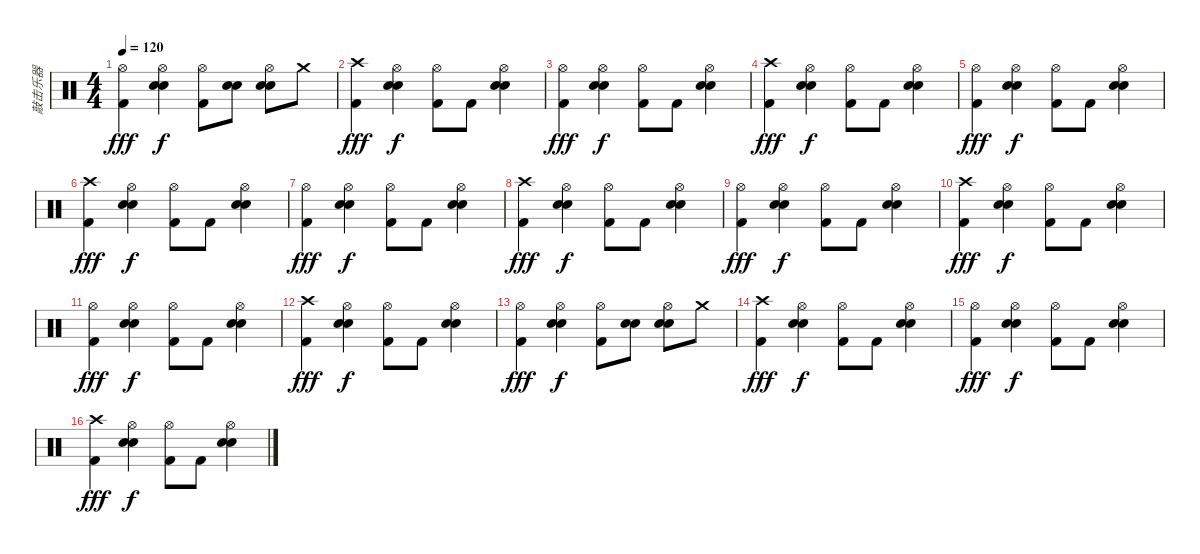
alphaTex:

\track ("敲击乐器" "敲击乐器") {instrument percussion}
\staff {score}
\articulation defaults
\ts (4 4)
\tempo 120
\clef neutral
\ks c
("Hi-Hat (open)" "Kick (hit) 2").4{dy fff} ("Hi-Hat (open)" "Electric Snare (hit)" "Metronome (bell)").4{dy f} ("Hi-Hat (open)" "Kick (hit) 2").8 ("Electric Snare (hit)" "Metronome (bell)").8 ("Hi-Hat (open)" "Electric Snare (hit)" "Metronome (bell)").8 "Crash medium (hit)".8 |
("Crash high (hit)" "Kick (hit) 2").4{dy fff} ("Hi-Hat (open)" "Electric Snare (hit)" "Metronome (bell)").4{dy f} ("Hi-Hat (open)" "Kick (hit) 2").8 "Kick (hit) 2".8 ("Hi-Hat (open)" "Electric Snare (hit)" "Metronome (bell)").4 |
("Hi-Hat (open)" "Kick (hit) 2").4{dy fff} ("Hi-Hat (open)" "Electric Snare (hit)" "Metronome (bell)").4{dy f} ("Hi-Hat (open)" "Kick (hit) 2").8 "Kick (hit) 2".8 ("Hi-Hat (open)" "Electric Snare (hit)" "Metronome (bell)").4 |
("Crash high (hit)" "Kick (hit) 2").4{dy fff} ("Hi-Hat (open)" "Electric Snare (hit)" "Metronome (bell)").4{dy f} ("Hi-Hat (open)" "Kick (hit) 2").8 "Kick (hit) 2".8 ("Hi-Hat (open)" "Electric Snare (hit)" "Metronome (bell)").4 |
("Hi-Hat (open)" "Kick (hit) 2").4{dy fff} ("Hi-Hat (open)" "Electric Snare (hit)" "Metronome (bell)").4{dy f} ("Hi-Hat (open)" "Kick (hit) 2").8 "Kick (hit) 2".8 ("Hi-Hat (open)" "Electric Snare (hit)" "Metronome (bell)").4 |
("Crash high (hit)" "Kick (hit) 2").4{dy fff} ("Hi-Hat (open)" "Electric Snare (hit)" "Metronome (bell)").4{dy f} ("Hi-Hat (open)" "Kick (hit) 2").8 "Kick (hit) 2".8 ("Hi-Hat (open)" "Electric Snare (hit)" "Metronome (bell)").4 |
("Hi-Hat (open)" "Kick (hit) 2").4{dy fff} ("Hi-Hat (open)" "Electric Snare (hit)" "Metronome (bell)").4{dy f} ("Hi-Hat (open)" "Kick (hit) 2").8 "Kick (hit) 2".8 ("Hi-Hat (open)" "Electric Snare (hit)" "Metronome (bell)").4 |
("Crash high (hit)" "Kick (hit) 2").4{dy fff} ("Hi-Hat (open)" "Electric Snare (hit)" "Metronome (bell)").4{dy f} ("Hi-Hat (open)" "Kick (hit) 2").8 "Kick (hit) 2".8 ("Hi-Hat (open)" "Electric Snare (hit)" "Metronome (bell)").4 |
("Hi-Hat (open)" "Kick (hit) 2").4{dy fff} ("Hi-Hat (open)" "Electric Snare (hit)" "Metronome (bell)").4{dy f} ("Hi-Hat (open)" "Kick (hit) 2").8 "Kick (hit) 2".8 ("Hi-Hat (open)" "Electric Snare (hit)" "Metronome (bell)").4 |
("Crash high (hit)" "Kick (hit) 2").4{dy fff} ("Hi-Hat (open)" "Electric Snare (hit)" "Metronome (bell)").4{dy f} ("Hi-Hat (open)" "Kick (hit) 2").8 "Kick (hit) 2".8 ("Hi-Hat (open)" "Electric Snare (hit)" "Metronome (bell)").4 |
("Hi-Hat (open)" "Kick (hit) 2").4{dy fff} ("Hi-Hat (open)" "Electric Snare (hit)" "Metronome (bell)").4{dy f} ("Hi-Hat (open)" "Kick (hit) 2").8 "Kick (hit) 2".8 ("Hi-Hat (open)" "Electric Snare (hit)" "Metronome (bell)").4 |
("Crash high (hit)" "Kick (hit) 2").4{dy fff} ("Hi-Hat (open)" "Electric Snare (hit)" "Metronome (bell)").4{dy f} ("Hi-Hat (open)" "Kick (hit) 2").8 "Kick (hit) 2".8 ("Hi-Hat (open)" "Electric Snare (hit)" "Metronome (bell)").4 |
("Hi-Hat (open)" "Kick (hit) 2").4{dy fff} ("Hi-Hat (open)" "Electric Snare (hit)" "Metronome (bell)").4{dy f} ("Hi-Hat (open)" "Kick (hit) 2").8 ("Electric Snare (hit)" "Metronome (bell)").8 ("Hi-Hat (open)" "Electric Snare (hit)" "Metronome (bell)").8 "Crash medium (hit)".8 |
("Crash high (hit)" "Kick (hit) 2").4{dy fff} ("Hi-Hat (open)" "Electric Snare (hit)" "Metronome (bell)").4{dy f} ("Hi-Hat (open)" "Kick (hit) 2").8 "Kick (hit) 2".8 ("Hi-Hat (open)" "Electric Snare (hit)" "Metronome (bell)").4 |
("Hi-Hat (open)" "Kick (hit) 2").4{dy fff} ("Hi-Hat (open)" "Electric Snare (hit)" "Metronome (bell)").4{dy f} ("Hi-Hat (open)" "Kick (hit) 2").8 "Kick (hit) 2".8 ("Hi-Hat (open)" "Electric Snare (hit)" "Metronome (bell)").4 |
("Crash high (hit)" "Kick (hit) 2").4{dy fff} ("Hi-Hat (open)" "Electric Snare (hit)" "Metronome (bell)").4{dy f} ("Hi-Hat (open)" "Kick (hit) 2").8 "Kick (hit) 2".8 ("Hi-Hat (open)" "Electric Snare (hit)" "Metronome (bell)").4
